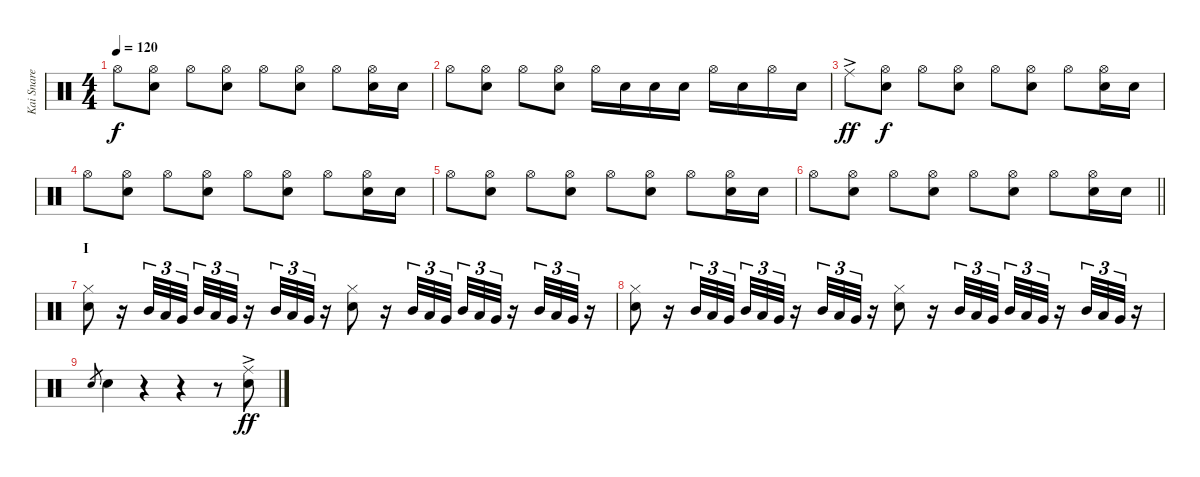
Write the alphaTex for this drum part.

\track ("Kai Snare" "Kai Snare") {instrument percussion}
\staff {score}
\articulation defaults
\ts (4 4)
\tempo 120
\clef neutral
\ks c "Hi-Hat (open)".8{dy f}
("Hi-Hat (open)" "Snare (hit) 2").8 "Hi-Hat (open)".8 ("Hi-Hat (open)" "Snare (hit) 2").8 "Hi-Hat (open)".8 ("Hi-Hat (open)" "Snare (hit) 2").8 "Hi-Hat (open)".8 ("Hi-Hat (open)" "Snare (hit) 2").16 "Snare (hit) 2".16 |
"Hi-Hat (open)".8 ("Hi-Hat (open)" "Snare (hit) 2").8 "Hi-Hat (open)".8 ("Hi-Hat (open)" "Snare (hit) 2").8 "Hi-Hat (open)".16 "Snare (hit) 2".16 "Snare (hit) 2".16 "Snare (hit) 2".16 "Hi-Hat (open)".16 "Snare (hit) 2".16 "Hi-Hat (open)".16 "Snare (hit) 2".16 |
"Ride (middle)"{ac}.8{dy ff} ("Hi-Hat (open)" "Snare (hit) 2").8{dy f} "Hi-Hat (open)".8 ("Hi-Hat (open)" "Snare (hit) 2").8 "Hi-Hat (open)".8 ("Hi-Hat (open)" "Snare (hit) 2").8 "Hi-Hat (open)".8 ("Hi-Hat (open)" "Snare (hit) 2").16 "Snare (hit) 2".16 |
"Hi-Hat (open)".8 ("Hi-Hat (open)" "Snare (hit) 2").8 "Hi-Hat (open)".8 ("Hi-Hat (open)" "Snare (hit) 2").8 "Hi-Hat (open)".8 ("Hi-Hat (open)" "Snare (hit) 2").8 "Hi-Hat (open)".8 ("Hi-Hat (open)" "Snare (hit) 2").16 "Snare (hit) 2".16 |
"Hi-Hat (open)".8 ("Hi-Hat (open)" "Snare (hit) 2").8 "Hi-Hat (open)".8 ("Hi-Hat (open)" "Snare (hit) 2").8 "Hi-Hat (open)".8 ("Hi-Hat (open)" "Snare (hit) 2").8 "Hi-Hat (open)".8 ("Hi-Hat (open)" "Snare (hit) 2").16 "Snare (hit) 2".16 |
\barLineRight lightlight "Hi-Hat (open)".8
("Hi-Hat (open)" "Snare (hit) 2").8 "Hi-Hat (open)".8 ("Hi-Hat (open)" "Snare (hit) 2").8 "Hi-Hat (open)".8 ("Hi-Hat (open)" "Snare (hit) 2").8 "Hi-Hat (open)".8 ("Hi-Hat (open)" "Snare (hit) 2").16 "Snare (hit) 2".16 |
\section ("" "I")
("Hi-Hat (closed)" "Snare (hit) 2").8 r.16 "Mid Tom (hit)".32{tu (3 2)} "Low Tom (hit)".32{tu (3 2)} "Very Low Tom (hit)".32{tu (3 2)} "Mid Tom (hit)".32{tu (3 2)} "Low Tom (hit)".32{tu (3 2)} "Very Low Tom (hit)".32{tu (3 2)} r.16 "Mid Tom (hit)".32{tu (3 2)} "Low Tom (hit)".32{tu (3 2)} "Very Low Tom (hit)".32{tu (3 2)} r.16 ("Hi-Hat (closed)" "Snare (hit) 2").8 r.16 "Mid Tom (hit)".32{tu (3 2)} "Low Tom (hit)".32{tu (3 2)} "Very Low Tom (hit)".32{tu (3 2)} "Mid Tom (hit)".32{tu (3 2)} "Low Tom (hit)".32{tu (3 2)} "Very Low Tom (hit)".32{tu (3 2)} r.16 "Mid Tom (hit)".32{tu (3 2)} "Low Tom (hit)".32{tu (3 2)} "Very Low Tom (hit)".32{tu (3 2)} r.16 |
("Hi-Hat (closed)" "Snare (hit) 2").8 r.16 "Mid Tom (hit)".32{tu (3 2)} "Low Tom (hit)".32{tu (3 2)} "Very Low Tom (hit)".32{tu (3 2)} "Mid Tom (hit)".32{tu (3 2)} "Low Tom (hit)".32{tu (3 2)} "Very Low Tom (hit)".32{tu (3 2)} r.16 "Mid Tom (hit)".32{tu (3 2)} "Low Tom (hit)".32{tu (3 2)} "Very Low Tom (hit)".32{tu (3 2)} r.16 ("Hi-Hat (closed)" "Snare (hit) 2").8 r.16 "Mid Tom (hit)".32{tu (3 2)} "Low Tom (hit)".32{tu (3 2)} "Very Low Tom (hit)".32{tu (3 2)} "Mid Tom (hit)".32{tu (3 2)} "Low Tom (hit)".32{tu (3 2)} "Very Low Tom (hit)".32{tu (3 2)} r.16 "Mid Tom (hit)".32{tu (3 2)} "Low Tom (hit)".32{tu (3 2)} "Very Low Tom (hit)".32{tu (3 2)} r.16 |
"Snare (hit) 2".8{gr} "Snare (hit) 2".4 r.4 r.4 r.8 ("Ride (middle)"{ac} "Snare (hit) 2").8{dy ff}
